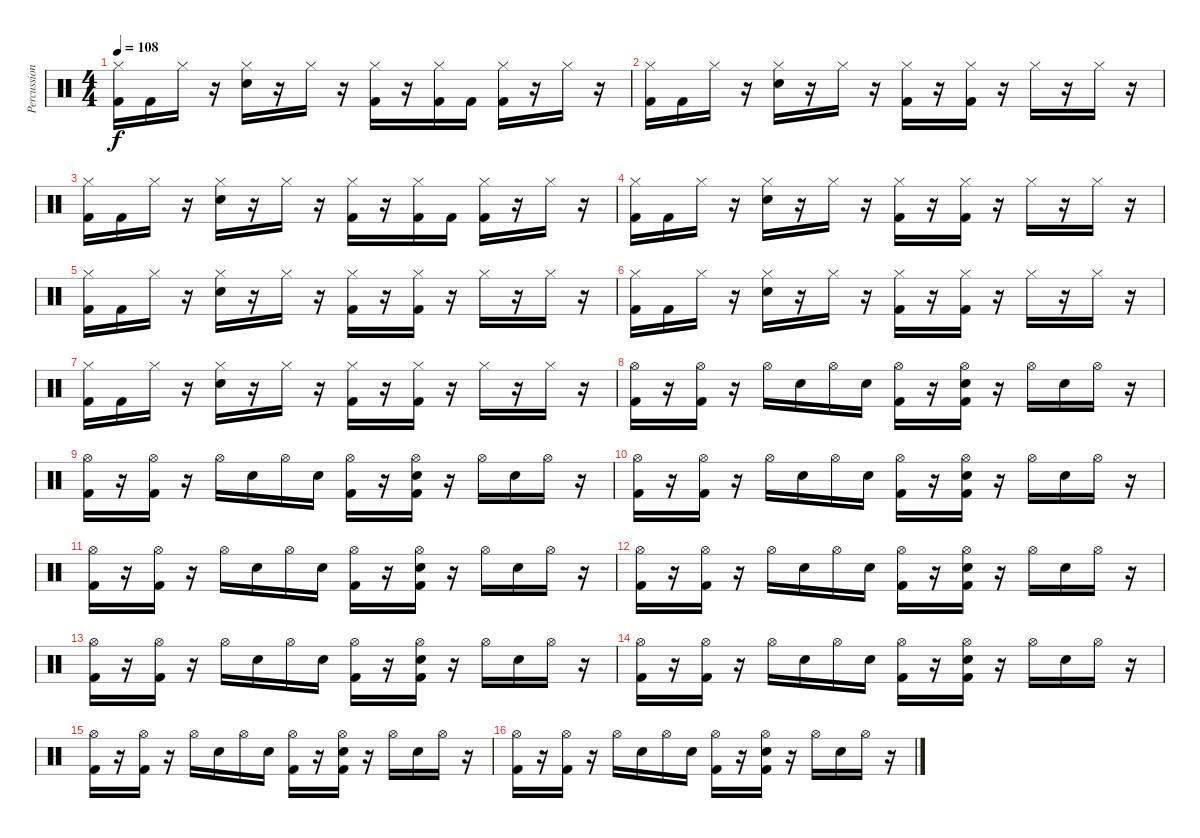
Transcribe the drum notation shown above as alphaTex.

\track ("Percussion" "Percussion") {instrument percussion}
\staff {score}
\articulation defaults
\ts (4 4)
\tempo 108
\clef neutral
\ks c
("Hi-Hat (closed)" "Kick (hit) 2").16{dy f} "Kick (hit) 2".16 "Hi-Hat (closed)".16 r.16 ("Hi-Hat (closed)" "Snare (hit) 2").16 r.16 "Hi-Hat (closed)".16 r.16 ("Hi-Hat (closed)" "Kick (hit) 2").16 r.16 ("Hi-Hat (closed)" "Kick (hit) 2").16 "Kick (hit) 2".16 ("Hi-Hat (closed)" "Kick (hit) 2").16 r.16 "Hi-Hat (closed)".16 r.16 |
("Hi-Hat (closed)" "Kick (hit) 2").16 "Kick (hit) 2".16 "Hi-Hat (closed)".16 r.16 ("Hi-Hat (closed)" "Snare (hit) 2").16 r.16 "Hi-Hat (closed)".16 r.16 ("Hi-Hat (closed)" "Kick (hit) 2").16 r.16 ("Hi-Hat (closed)" "Kick (hit) 2").16 r.16 "Hi-Hat (closed)".16 r.16 "Hi-Hat (closed)".16 r.16 |
("Hi-Hat (closed)" "Kick (hit) 2").16 "Kick (hit) 2".16 "Hi-Hat (closed)".16 r.16 ("Hi-Hat (closed)" "Snare (hit) 2").16 r.16 "Hi-Hat (closed)".16 r.16 ("Hi-Hat (closed)" "Kick (hit) 2").16 r.16 ("Hi-Hat (closed)" "Kick (hit) 2").16 "Kick (hit) 2".16 ("Hi-Hat (closed)" "Kick (hit) 2").16 r.16 "Hi-Hat (closed)".16 r.16 |
("Hi-Hat (closed)" "Kick (hit) 2").16 "Kick (hit) 2".16 "Hi-Hat (closed)".16 r.16 ("Hi-Hat (closed)" "Snare (hit) 2").16 r.16 "Hi-Hat (closed)".16 r.16 ("Hi-Hat (closed)" "Kick (hit) 2").16 r.16 ("Hi-Hat (closed)" "Kick (hit) 2").16 r.16 "Hi-Hat (closed)".16 r.16 "Hi-Hat (closed)".16 r.16 |
("Hi-Hat (closed)" "Kick (hit) 2").16 "Kick (hit) 2".16 "Hi-Hat (closed)".16 r.16 ("Hi-Hat (closed)" "Snare (hit) 2").16 r.16 "Hi-Hat (closed)".16 r.16 ("Hi-Hat (closed)" "Kick (hit) 2").16 r.16 ("Hi-Hat (closed)" "Kick (hit) 2").16 r.16 "Hi-Hat (closed)".16 r.16 "Hi-Hat (closed)".16 r.16 |
("Hi-Hat (closed)" "Kick (hit) 2").16 "Kick (hit) 2".16 "Hi-Hat (closed)".16 r.16 ("Hi-Hat (closed)" "Snare (hit) 2").16 r.16 "Hi-Hat (closed)".16 r.16 ("Hi-Hat (closed)" "Kick (hit) 2").16 r.16 ("Hi-Hat (closed)" "Kick (hit) 2").16 r.16 "Hi-Hat (closed)".16 r.16 "Hi-Hat (closed)".16 r.16 |
("Hi-Hat (closed)" "Kick (hit) 2").16 "Kick (hit) 2".16 "Hi-Hat (closed)".16 r.16 ("Hi-Hat (closed)" "Snare (hit) 2").16 r.16 "Hi-Hat (closed)".16 r.16 ("Hi-Hat (closed)" "Kick (hit) 2").16 r.16 ("Hi-Hat (closed)" "Kick (hit) 2").16 r.16 "Hi-Hat (closed)".16 r.16 "Hi-Hat (closed)".16 r.16 |
("Hi-Hat (open)" "Kick (hit) 2").16 r.16 ("Hi-Hat (open)" "Kick (hit) 2").16 r.16 "Hi-Hat (open)".16 "Snare (hit) 2".16 "Hi-Hat (open)".16 "Snare (hit) 2".16 ("Hi-Hat (open)" "Kick (hit) 2").16 r.16 ("Hi-Hat (open)" "Snare (hit) 2" "Kick (hit) 2").16 r.16 "Hi-Hat (open)".16 "Snare (hit) 2".16 "Hi-Hat (open)".16 r.16 |
("Hi-Hat (open)" "Kick (hit) 2").16 r.16 ("Hi-Hat (open)" "Kick (hit) 2").16 r.16 "Hi-Hat (open)".16 "Snare (hit) 2".16 "Hi-Hat (open)".16 "Snare (hit) 2".16 ("Hi-Hat (open)" "Kick (hit) 2").16 r.16 ("Hi-Hat (open)" "Snare (hit) 2" "Kick (hit) 2").16 r.16 "Hi-Hat (open)".16 "Snare (hit) 2".16 "Hi-Hat (open)".16 r.16 |
("Hi-Hat (open)" "Kick (hit) 2").16 r.16 ("Hi-Hat (open)" "Kick (hit) 2").16 r.16 "Hi-Hat (open)".16 "Snare (hit) 2".16 "Hi-Hat (open)".16 "Snare (hit) 2".16 ("Hi-Hat (open)" "Kick (hit) 2").16 r.16 ("Hi-Hat (open)" "Snare (hit) 2" "Kick (hit) 2").16 r.16 "Hi-Hat (open)".16 "Snare (hit) 2".16 "Hi-Hat (open)".16 r.16 |
("Hi-Hat (open)" "Kick (hit) 2").16 r.16 ("Hi-Hat (open)" "Kick (hit) 2").16 r.16 "Hi-Hat (open)".16 "Snare (hit) 2".16 "Hi-Hat (open)".16 "Snare (hit) 2".16 ("Hi-Hat (open)" "Kick (hit) 2").16 r.16 ("Hi-Hat (open)" "Snare (hit) 2" "Kick (hit) 2").16 r.16 "Hi-Hat (open)".16 "Snare (hit) 2".16 "Hi-Hat (open)".16 r.16 |
("Hi-Hat (open)" "Kick (hit) 2").16 r.16 ("Hi-Hat (open)" "Kick (hit) 2").16 r.16 "Hi-Hat (open)".16 "Snare (hit) 2".16 "Hi-Hat (open)".16 "Snare (hit) 2".16 ("Hi-Hat (open)" "Kick (hit) 2").16 r.16 ("Hi-Hat (open)" "Snare (hit) 2" "Kick (hit) 2").16 r.16 "Hi-Hat (open)".16 "Snare (hit) 2".16 "Hi-Hat (open)".16 r.16 |
("Hi-Hat (open)" "Kick (hit) 2").16 r.16 ("Hi-Hat (open)" "Kick (hit) 2").16 r.16 "Hi-Hat (open)".16 "Snare (hit) 2".16 "Hi-Hat (open)".16 "Snare (hit) 2".16 ("Hi-Hat (open)" "Kick (hit) 2").16 r.16 ("Hi-Hat (open)" "Snare (hit) 2" "Kick (hit) 2").16 r.16 "Hi-Hat (open)".16 "Snare (hit) 2".16 "Hi-Hat (open)".16 r.16 |
("Hi-Hat (open)" "Kick (hit) 2").16 r.16 ("Hi-Hat (open)" "Kick (hit) 2").16 r.16 "Hi-Hat (open)".16 "Snare (hit) 2".16 "Hi-Hat (open)".16 "Snare (hit) 2".16 ("Hi-Hat (open)" "Kick (hit) 2").16 r.16 ("Hi-Hat (open)" "Snare (hit) 2" "Kick (hit) 2").16 r.16 "Hi-Hat (open)".16 "Snare (hit) 2".16 "Hi-Hat (open)".16 r.16 |
("Hi-Hat (open)" "Kick (hit) 2").16 r.16 ("Hi-Hat (open)" "Kick (hit) 2").16 r.16 "Hi-Hat (open)".16 "Snare (hit) 2".16 "Hi-Hat (open)".16 "Snare (hit) 2".16 ("Hi-Hat (open)" "Kick (hit) 2").16 r.16 ("Hi-Hat (open)" "Snare (hit) 2" "Kick (hit) 2").16 r.16 "Hi-Hat (open)".16 "Snare (hit) 2".16 "Hi-Hat (open)".16 r.16 |
("Hi-Hat (open)" "Kick (hit) 2").16 r.16 ("Hi-Hat (open)" "Kick (hit) 2").16 r.16 "Hi-Hat (open)".16 "Snare (hit) 2".16 "Hi-Hat (open)".16 "Snare (hit) 2".16 ("Hi-Hat (open)" "Kick (hit) 2").16 r.16 ("Hi-Hat (open)" "Snare (hit) 2" "Kick (hit) 2").16 r.16 "Hi-Hat (open)".16 "Snare (hit) 2".16 "Hi-Hat (open)".16 r.16
